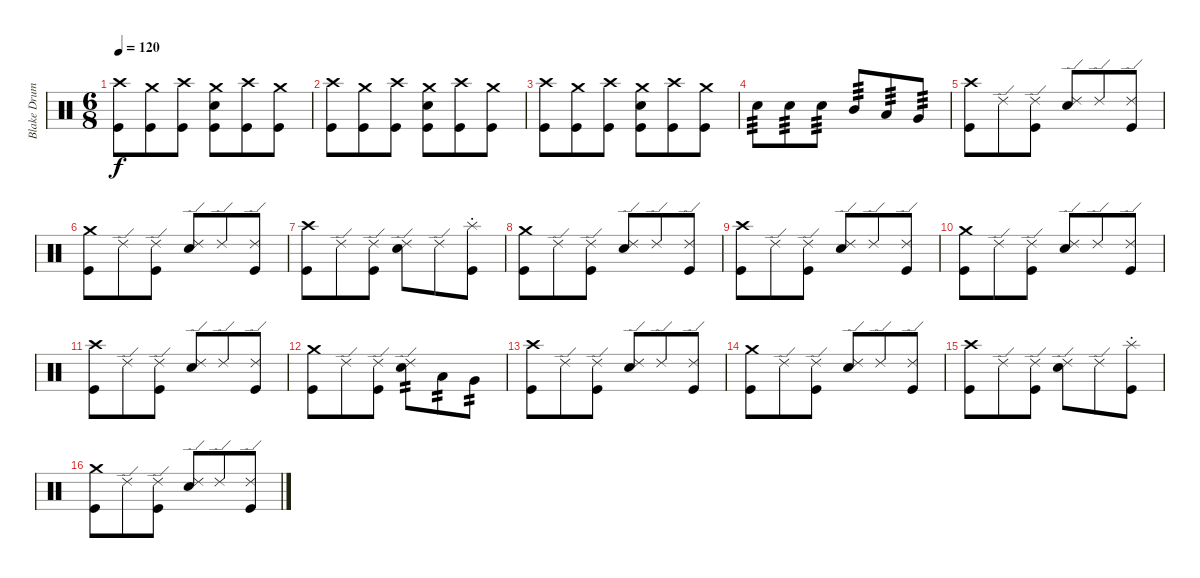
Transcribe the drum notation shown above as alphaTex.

\track ("Blake Drums" "Blake Drum") {instrument percussion}
\staff {score}
\articulation defaults
\ts (6 8)
\tempo 120
\clef neutral
\ks c
("Crash high (hit)" "Kick (hit)").8{dy f} ("Crash medium (hit)" "Kick (hit)").8 ("Crash high (hit)" "Kick (hit)").8 ("Crash medium (hit)" "Snare (hit) 2" "Kick (hit)").8 ("Crash high (hit)" "Kick (hit)").8 ("Crash medium (hit)" "Kick (hit)").8 |
("Crash high (hit)" "Kick (hit)").8 ("Crash medium (hit)" "Kick (hit)").8 ("Crash high (hit)" "Kick (hit)").8 ("Crash medium (hit)" "Snare (hit) 2" "Kick (hit)").8 ("Crash high (hit)" "Kick (hit)").8 ("Crash medium (hit)" "Kick (hit)").8 |
("Crash high (hit)" "Kick (hit)").8 ("Crash medium (hit)" "Kick (hit)").8 ("Crash high (hit)" "Kick (hit)").8 ("Crash medium (hit)" "Snare (hit) 2" "Kick (hit)").8 ("Crash high (hit)" "Kick (hit)").8 ("Crash medium (hit)" "Kick (hit)").8 |
"Snare (hit) 2".8{tp 3} "Snare (hit) 2".8{tp 3} "Snare (hit) 2".8{tp 3} "Mid Tom (hit)".8{tp 3} "Low Tom (hit)".8{tp 3} "Very Low Tom (hit)".8{tp 3} |
("Crash high (hit)" "Kick (hit)").8 "Ride (edge) 2".8 ("Ride (edge) 2" "Kick (hit)").8 ("Ride (edge) 2" "Snare (hit) 2").8 "Ride (edge) 2".8 ("Ride (edge) 2" "Kick (hit)").8 |
("Crash medium (hit)" "Kick (hit)").8 "Ride (edge) 2".8 ("Ride (edge) 2" "Kick (hit)").8 ("Ride (edge) 2" "Snare (hit) 2").8 "Ride (edge) 2".8 ("Ride (edge) 2" "Kick (hit)").8 |
("Crash high (hit)" "Kick (hit)").8 "Ride (edge) 2".8 ("Ride (edge) 2" "Kick (hit)").8 ("Ride (edge) 2" "Snare (hit) 2").8 "Ride (edge) 2".8 ("Splash (choke)" "Kick (hit)").8 |
("Crash medium (hit)" "Kick (hit)").8 "Ride (edge) 2".8 ("Ride (edge) 2" "Kick (hit)").8 ("Ride (edge) 2" "Snare (hit) 2").8 "Ride (edge) 2".8 ("Ride (edge) 2" "Kick (hit)").8 |
("Crash high (hit)" "Kick (hit)").8 "Ride (edge) 2".8 ("Ride (edge) 2" "Kick (hit)").8 ("Ride (edge) 2" "Snare (hit) 2").8 "Ride (edge) 2".8 ("Ride (edge) 2" "Kick (hit)").8 |
("Crash medium (hit)" "Kick (hit)").8 "Ride (edge) 2".8 ("Ride (edge) 2" "Kick (hit)").8 ("Ride (edge) 2" "Snare (hit) 2").8 "Ride (edge) 2".8 ("Ride (edge) 2" "Kick (hit)").8 |
("Crash high (hit)" "Kick (hit)").8 "Ride (edge) 2".8 ("Ride (edge) 2" "Kick (hit)").8 ("Ride (edge) 2" "Snare (hit) 2").8 "Ride (edge) 2".8 ("Ride (edge) 2" "Kick (hit)").8 |
("Crash medium (hit)" "Kick (hit)").8 "Ride (edge) 2".8 ("Ride (edge) 2" "Kick (hit)").8 ("Ride (edge) 2" "Snare (hit) 2").8{tp 2} "Low Tom (hit)".8{tp 2} "Very Low Tom (hit)".8{tp 2} |
("Crash high (hit)" "Kick (hit)").8 "Ride (edge) 2".8 ("Ride (edge) 2" "Kick (hit)").8 ("Ride (edge) 2" "Snare (hit) 2").8 "Ride (edge) 2".8 ("Ride (edge) 2" "Kick (hit)").8 |
("Crash medium (hit)" "Kick (hit)").8 "Ride (edge) 2".8 ("Ride (edge) 2" "Kick (hit)").8 ("Ride (edge) 2" "Snare (hit) 2").8 "Ride (edge) 2".8 ("Ride (edge) 2" "Kick (hit)").8 |
("Crash high (hit)" "Kick (hit)").8 "Ride (edge) 2".8 ("Ride (edge) 2" "Kick (hit)").8 ("Ride (edge) 2" "Snare (hit) 2").8 "Ride (edge) 2".8 ("Splash (choke)" "Kick (hit)").8 |
("Crash medium (hit)" "Kick (hit)").8 "Ride (edge) 2".8 ("Ride (edge) 2" "Kick (hit)").8 ("Ride (edge) 2" "Snare (hit) 2").8 "Ride (edge) 2".8 ("Ride (edge) 2" "Kick (hit)").8
